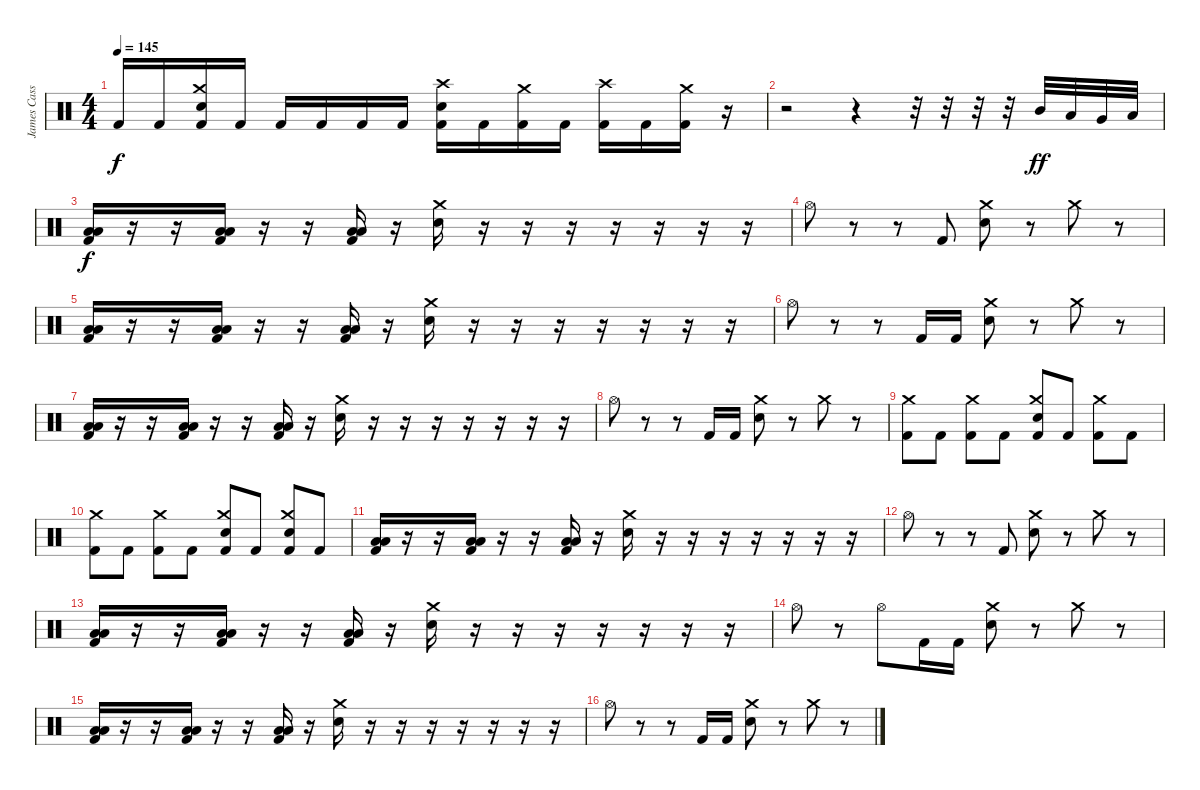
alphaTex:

\track ("James Cassells" "James Cass") {instrument percussion}
\staff {score}
\articulation defaults
\ts (4 4)
\tempo 145
\clef neutral
\ks c "Kick (hit) 2".16{dy f} "Kick (hit) 2".16
("Crash medium (hit)" "Electric Snare (hit)" "Kick (hit) 2").16 "Kick (hit) 2".16 "Kick (hit) 2".16 "Kick (hit) 2".16 "Kick (hit) 2".16 "Kick (hit) 2".16 ("Crash high (hit)" "Electric Snare (hit)" "Kick (hit) 2").16 "Kick (hit) 2".16 ("Crash medium (hit)" "Kick (hit) 2").16 "Kick (hit) 2".16 ("Crash high (hit)" "Kick (hit) 2").16 "Kick (hit) 2".16 ("Crash medium (hit)" "Kick (hit) 2").16 r.16 |
r.2 r.4 r.32 r.32 r.32 r.32 "Mid Tom (hit)".32{dy ff} "Low Tom (hit)".32 "Very Low Tom (hit)".32 "Low Floor Tom (hit)".32 |
("Low Tom (hit)" "Low Floor Tom (hit)" "Kick (hit) 2").16{dy f} r.16 r.16 ("Low Tom (hit)" "Low Floor Tom (hit)" "Kick (hit) 2").16 r.16 r.16 ("Low Tom (hit)" "Low Floor Tom (hit)" "Kick (hit) 2").16 r.16 ("Crash medium (hit)" "Electric Snare (hit)").16 r.16 r.16 r.16 r.16 r.16 r.16 r.16 |
"Hi-Hat (open)".8 r.8 r.8 "Kick (hit) 2".8 ("Crash medium (hit)" "Electric Snare (hit)").8 r.8 "Crash medium (hit)".8 r.8 |
("Low Tom (hit)" "Low Floor Tom (hit)" "Kick (hit) 2").16 r.16 r.16 ("Low Tom (hit)" "Low Floor Tom (hit)" "Kick (hit) 2").16 r.16 r.16 ("Low Tom (hit)" "Low Floor Tom (hit)" "Kick (hit) 2").16 r.16 ("Crash medium (hit)" "Electric Snare (hit)").16 r.16 r.16 r.16 r.16 r.16 r.16 r.16 |
"Hi-Hat (open)".8 r.8 r.8 "Kick (hit) 2".16 "Kick (hit) 2".16 ("Crash medium (hit)" "Electric Snare (hit)").8 r.8 "Crash medium (hit)".8 r.8 |
("Low Tom (hit)" "Low Floor Tom (hit)" "Kick (hit) 2").16 r.16 r.16 ("Low Tom (hit)" "Low Floor Tom (hit)" "Kick (hit) 2").16 r.16 r.16 ("Low Tom (hit)" "Low Floor Tom (hit)" "Kick (hit) 2").16 r.16 ("Crash medium (hit)" "Electric Snare (hit)").16 r.16 r.16 r.16 r.16 r.16 r.16 r.16 |
"Hi-Hat (open)".8 r.8 r.8 "Kick (hit) 2".16 "Kick (hit) 2".16 ("Crash medium (hit)" "Electric Snare (hit)").8 r.8 "Crash medium (hit)".8 r.8 |
("Crash medium (hit)" "Kick (hit) 2").8 "Kick (hit) 2".8 ("Crash medium (hit)" "Kick (hit) 2").8 "Kick (hit) 2".8 ("Crash medium (hit)" "Electric Snare (hit)" "Kick (hit) 2").8 "Kick (hit) 2".8 ("Crash medium (hit)" "Kick (hit) 2").8 "Kick (hit) 2".8 |
("Crash medium (hit)" "Kick (hit) 2").8 "Kick (hit) 2".8 ("Crash medium (hit)" "Kick (hit) 2").8 "Kick (hit) 2".8 ("Crash medium (hit)" "Electric Snare (hit)" "Kick (hit) 2").8 "Kick (hit) 2".8 ("Crash medium (hit)" "Electric Snare (hit)" "Kick (hit) 2").8 "Kick (hit) 2".8 |
("Low Tom (hit)" "Low Floor Tom (hit)" "Kick (hit) 2").16 r.16 r.16 ("Low Tom (hit)" "Low Floor Tom (hit)" "Kick (hit) 2").16 r.16 r.16 ("Low Tom (hit)" "Low Floor Tom (hit)" "Kick (hit) 2").16 r.16 ("Crash medium (hit)" "Electric Snare (hit)").16 r.16 r.16 r.16 r.16 r.16 r.16 r.16 |
"Hi-Hat (open)".8 r.8 r.8 "Kick (hit) 2".8 ("Crash medium (hit)" "Electric Snare (hit)").8 r.8 "Crash medium (hit)".8 r.8 |
("Low Tom (hit)" "Low Floor Tom (hit)" "Kick (hit) 2").16 r.16 r.16 ("Low Tom (hit)" "Low Floor Tom (hit)" "Kick (hit) 2").16 r.16 r.16 ("Low Tom (hit)" "Low Floor Tom (hit)" "Kick (hit) 2").16 r.16 ("Crash medium (hit)" "Electric Snare (hit)").16 r.16 r.16 r.16 r.16 r.16 r.16 r.16 |
"Hi-Hat (open)".8 r.8 "Hi-Hat (open)".8 "Kick (hit) 2".16 "Kick (hit) 2".16 ("Crash medium (hit)" "Electric Snare (hit)").8 r.8 "Crash medium (hit)".8 r.8 |
("Low Tom (hit)" "Low Floor Tom (hit)" "Kick (hit) 2").16 r.16 r.16 ("Low Tom (hit)" "Low Floor Tom (hit)" "Kick (hit) 2").16 r.16 r.16 ("Low Tom (hit)" "Low Floor Tom (hit)" "Kick (hit) 2").16 r.16 ("Crash medium (hit)" "Electric Snare (hit)").16 r.16 r.16 r.16 r.16 r.16 r.16 r.16 |
"Hi-Hat (open)".8 r.8 r.8 "Kick (hit) 2".16 "Kick (hit) 2".16 ("Crash medium (hit)" "Electric Snare (hit)").8 r.8 "Crash medium (hit)".8 r.8
